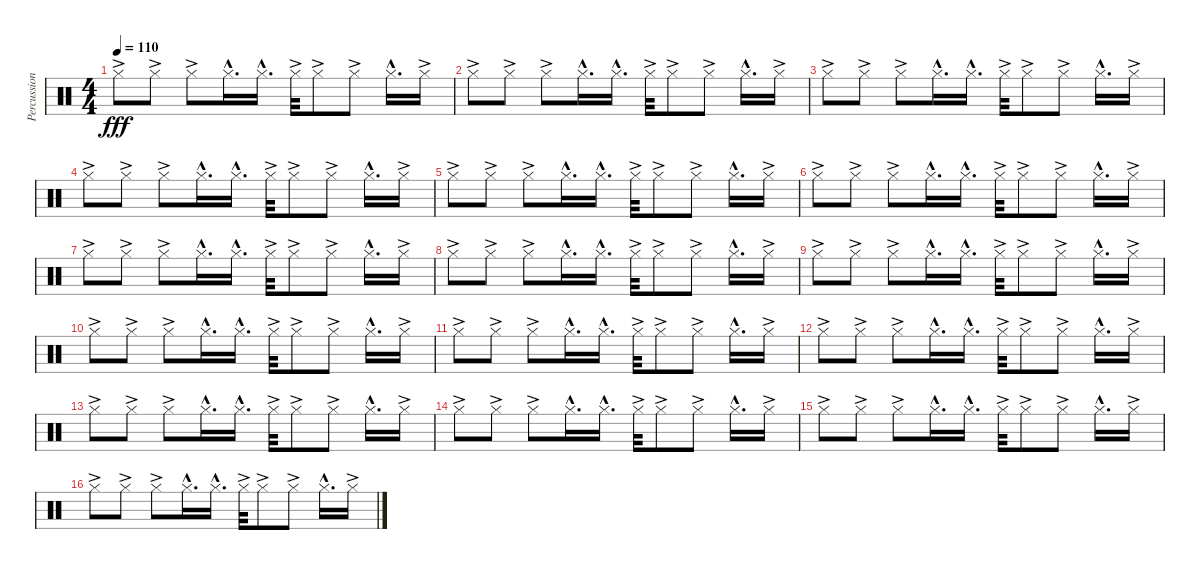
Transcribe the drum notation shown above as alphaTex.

\track ("Percussion" "Percussion") {instrument percussion}
\staff {score}
\articulation defaults
\ts (4 4)
\tempo 110
\clef neutral
\ks c "Hi-Hat (closed)"{ac}.8{dy fff} "Hi-Hat (closed)"{ac}.8 "Hi-Hat (closed)"{ac}.8 "Hi-Hat (closed)"{hac}.16{d} "Hi-Hat (closed)"{hac}.16{d} "Hi-Hat (closed)"{ac}.32 "Hi-Hat (closed)"{ac}.8 "Hi-Hat (closed)"{ac}.8 "Hi-Hat (closed)"{hac}.16{d} "Hi-Hat (closed)"{ac}.16
|
"Hi-Hat (closed)"{ac}.8 "Hi-Hat (closed)"{ac}.8 "Hi-Hat (closed)"{ac}.8 "Hi-Hat (closed)"{hac}.16{d} "Hi-Hat (closed)"{hac}.16{d} "Hi-Hat (closed)"{ac}.32 "Hi-Hat (closed)"{ac}.8 "Hi-Hat (closed)"{ac}.8 "Hi-Hat (closed)"{hac}.16{d} "Hi-Hat (closed)"{ac}.16 |
"Hi-Hat (closed)"{ac}.8 "Hi-Hat (closed)"{ac}.8 "Hi-Hat (closed)"{ac}.8 "Hi-Hat (closed)"{hac}.16{d} "Hi-Hat (closed)"{hac}.16{d} "Hi-Hat (closed)"{ac}.32 "Hi-Hat (closed)"{ac}.8 "Hi-Hat (closed)"{ac}.8 "Hi-Hat (closed)"{hac}.16{d} "Hi-Hat (closed)"{ac}.16 |
"Hi-Hat (closed)"{ac}.8 "Hi-Hat (closed)"{ac}.8 "Hi-Hat (closed)"{ac}.8 "Hi-Hat (closed)"{hac}.16{d} "Hi-Hat (closed)"{hac}.16{d} "Hi-Hat (closed)"{ac}.32 "Hi-Hat (closed)"{ac}.8 "Hi-Hat (closed)"{ac}.8 "Hi-Hat (closed)"{hac}.16{d} "Hi-Hat (closed)"{ac}.16 |
"Hi-Hat (closed)"{ac}.8 "Hi-Hat (closed)"{ac}.8 "Hi-Hat (closed)"{ac}.8 "Hi-Hat (closed)"{hac}.16{d} "Hi-Hat (closed)"{hac}.16{d} "Hi-Hat (closed)"{ac}.32 "Hi-Hat (closed)"{ac}.8 "Hi-Hat (closed)"{ac}.8 "Hi-Hat (closed)"{hac}.16{d} "Hi-Hat (closed)"{ac}.16 |
"Hi-Hat (closed)"{ac}.8 "Hi-Hat (closed)"{ac}.8 "Hi-Hat (closed)"{ac}.8 "Hi-Hat (closed)"{hac}.16{d} "Hi-Hat (closed)"{hac}.16{d} "Hi-Hat (closed)"{ac}.32 "Hi-Hat (closed)"{ac}.8 "Hi-Hat (closed)"{ac}.8 "Hi-Hat (closed)"{hac}.16{d} "Hi-Hat (closed)"{ac}.16 |
"Hi-Hat (closed)"{ac}.8 "Hi-Hat (closed)"{ac}.8 "Hi-Hat (closed)"{ac}.8 "Hi-Hat (closed)"{hac}.16{d} "Hi-Hat (closed)"{hac}.16{d} "Hi-Hat (closed)"{ac}.32 "Hi-Hat (closed)"{ac}.8 "Hi-Hat (closed)"{ac}.8 "Hi-Hat (closed)"{hac}.16{d} "Hi-Hat (closed)"{ac}.16 |
"Hi-Hat (closed)"{ac}.8 "Hi-Hat (closed)"{ac}.8 "Hi-Hat (closed)"{ac}.8 "Hi-Hat (closed)"{hac}.16{d} "Hi-Hat (closed)"{hac}.16{d} "Hi-Hat (closed)"{ac}.32 "Hi-Hat (closed)"{ac}.8 "Hi-Hat (closed)"{ac}.8 "Hi-Hat (closed)"{hac}.16{d} "Hi-Hat (closed)"{ac}.16 |
"Hi-Hat (closed)"{ac}.8 "Hi-Hat (closed)"{ac}.8 "Hi-Hat (closed)"{ac}.8 "Hi-Hat (closed)"{hac}.16{d} "Hi-Hat (closed)"{hac}.16{d} "Hi-Hat (closed)"{ac}.32 "Hi-Hat (closed)"{ac}.8 "Hi-Hat (closed)"{ac}.8 "Hi-Hat (closed)"{hac}.16{d} "Hi-Hat (closed)"{ac}.16 |
"Hi-Hat (closed)"{ac}.8 "Hi-Hat (closed)"{ac}.8 "Hi-Hat (closed)"{ac}.8 "Hi-Hat (closed)"{hac}.16{d} "Hi-Hat (closed)"{hac}.16{d} "Hi-Hat (closed)"{ac}.32 "Hi-Hat (closed)"{ac}.8 "Hi-Hat (closed)"{ac}.8 "Hi-Hat (closed)"{hac}.16{d} "Hi-Hat (closed)"{ac}.16 |
"Hi-Hat (closed)"{ac}.8 "Hi-Hat (closed)"{ac}.8 "Hi-Hat (closed)"{ac}.8 "Hi-Hat (closed)"{hac}.16{d} "Hi-Hat (closed)"{hac}.16{d} "Hi-Hat (closed)"{ac}.32 "Hi-Hat (closed)"{ac}.8 "Hi-Hat (closed)"{ac}.8 "Hi-Hat (closed)"{hac}.16{d} "Hi-Hat (closed)"{ac}.16 |
"Hi-Hat (closed)"{ac}.8 "Hi-Hat (closed)"{ac}.8 "Hi-Hat (closed)"{ac}.8 "Hi-Hat (closed)"{hac}.16{d} "Hi-Hat (closed)"{hac}.16{d} "Hi-Hat (closed)"{ac}.32 "Hi-Hat (closed)"{ac}.8 "Hi-Hat (closed)"{ac}.8 "Hi-Hat (closed)"{hac}.16{d} "Hi-Hat (closed)"{ac}.16 |
"Hi-Hat (closed)"{ac}.8 "Hi-Hat (closed)"{ac}.8 "Hi-Hat (closed)"{ac}.8 "Hi-Hat (closed)"{hac}.16{d} "Hi-Hat (closed)"{hac}.16{d} "Hi-Hat (closed)"{ac}.32 "Hi-Hat (closed)"{ac}.8 "Hi-Hat (closed)"{ac}.8 "Hi-Hat (closed)"{hac}.16{d} "Hi-Hat (closed)"{ac}.16 |
"Hi-Hat (closed)"{ac}.8 "Hi-Hat (closed)"{ac}.8 "Hi-Hat (closed)"{ac}.8 "Hi-Hat (closed)"{hac}.16{d} "Hi-Hat (closed)"{hac}.16{d} "Hi-Hat (closed)"{ac}.32 "Hi-Hat (closed)"{ac}.8 "Hi-Hat (closed)"{ac}.8 "Hi-Hat (closed)"{hac}.16{d} "Hi-Hat (closed)"{ac}.16 |
"Hi-Hat (closed)"{ac}.8 "Hi-Hat (closed)"{ac}.8 "Hi-Hat (closed)"{ac}.8 "Hi-Hat (closed)"{hac}.16{d} "Hi-Hat (closed)"{hac}.16{d} "Hi-Hat (closed)"{ac}.32 "Hi-Hat (closed)"{ac}.8 "Hi-Hat (closed)"{ac}.8 "Hi-Hat (closed)"{hac}.16{d} "Hi-Hat (closed)"{ac}.16 |
"Hi-Hat (closed)"{ac}.8 "Hi-Hat (closed)"{ac}.8 "Hi-Hat (closed)"{ac}.8 "Hi-Hat (closed)"{hac}.16{d} "Hi-Hat (closed)"{hac}.16{d} "Hi-Hat (closed)"{ac}.32 "Hi-Hat (closed)"{ac}.8 "Hi-Hat (closed)"{ac}.8 "Hi-Hat (closed)"{hac}.16{d} "Hi-Hat (closed)"{ac}.16
